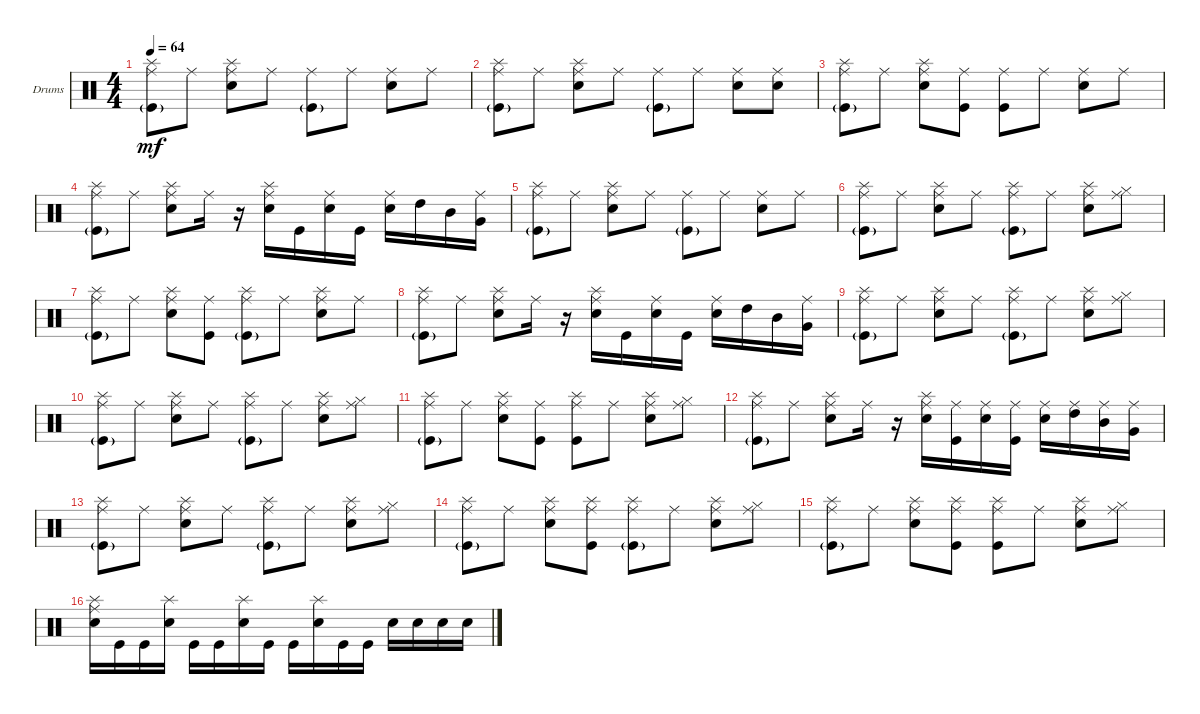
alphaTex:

\defaultSystemsLayout 4
\bracketExtendMode groupsimilarinstruments
\firstSystemTrackNameOrientation horizontal
\otherSystemsTrackNameOrientation horizontal
\track ("Drumkit" "Drums") {instrument percussion}
\staff {score}
\articulation defaults
\ts (4 4)
\tempo 64
\clef neutral
\ks c
("Ride (middle)" "Splash (hit)" "Kick (hit)"{g}).8{dy mf} "Ride (middle)".8 ("Ride (middle)" "Snare (hit) 2" "Splash (hit)").8 "Ride (middle)".8 ("Ride (middle)" "Kick (hit)"{g}).8 "Ride (middle)".8 ("Ride (middle)" "Snare (hit) 2").8 "Ride (middle)".8 |
("Ride (middle)" "Splash (hit)" "Kick (hit)"{g}).8 "Ride (middle)".8 ("Ride (middle)" "Snare (hit) 2" "Splash (hit)").8 "Ride (middle)".8 ("Ride (middle)" "Kick (hit)"{g}).8 "Ride (middle)".8 ("Ride (middle)" "Snare (hit) 2").8 ("Ride (middle)" "Snare (hit) 2").8 |
("Ride (middle)" "Splash (hit)" "Kick (hit)"{g}).8 "Ride (middle)".8 ("Ride (middle)" "Snare (hit) 2" "Splash (hit)").8 ("Ride (middle)" "Kick (hit)").8 ("Ride (middle)" "Kick (hit)").8 "Ride (middle)".8 ("Ride (middle)" "Snare (hit) 2").8 "Ride (middle)".8 |
("Ride (middle)" "Kick (hit)"{g} "Splash (hit)").8 "Ride (middle)".8 ("Ride (middle)" "Snare (hit) 2" "Splash (hit)").8 "Ride (middle)".16 r.16 ("Snare (hit) 2" "Ride (middle)" "Splash (hit)").16 "Kick (hit)".16 ("Snare (hit) 2" "Ride (middle)").16 "Kick (hit)".16 ("Ride (middle)" "Snare (hit) 2").16 "High Tom (hit)".16 "Mid Tom (hit)".16 ("Ride (middle)" "Very Low Tom (hit)").16 |
("Ride (middle)" "Splash (hit)" "Kick (hit)"{g}).8 "Ride (middle)".8 ("Ride (middle)" "Snare (hit) 2" "Splash (hit)").8 "Ride (middle)".8 ("Ride (middle)" "Kick (hit)"{g}).8 "Ride (middle)".8 ("Ride (middle)" "Snare (hit) 2").8 "Ride (middle)".8 |
("Ride (middle)" "Splash (hit)" "Kick (hit)"{g}).8 "Ride (middle)".8 ("Ride (middle)" "Snare (hit) 2" "Splash (hit)").8 "Ride (middle)".8 ("Ride (middle)" "Kick (hit)"{g} "Splash (hit)").8 "Ride (middle)".8 ("Ride (middle)" "Snare (hit) 2" "Splash (hit)").8 ("Ride (middle)" "Hi-Hat (closed)").8 |
("Ride (middle)" "Splash (hit)" "Kick (hit)"{g}).8 "Ride (middle)".8 ("Ride (middle)" "Snare (hit) 2" "Splash (hit)").8 ("Ride (middle)" "Kick (hit)").8 ("Ride (middle)" "Kick (hit)"{g} "Splash (hit)").8 "Ride (middle)".8 ("Ride (middle)" "Snare (hit) 2" "Splash (hit)").8 "Ride (middle)".8 |
("Ride (middle)" "Kick (hit)"{g} "Splash (hit)").8 "Ride (middle)".8 ("Ride (middle)" "Snare (hit) 2" "Splash (hit)").8 "Ride (middle)".16 r.16 ("Snare (hit) 2" "Ride (middle)" "Splash (hit)").16 "Kick (hit)".16 ("Snare (hit) 2" "Ride (middle)").16 "Kick (hit)".16 ("Ride (middle)" "Snare (hit) 2").16 "High Tom (hit)".16 "Mid Tom (hit)".16 ("Ride (middle)" "Very Low Tom (hit)").16 |
("Ride (middle)" "Splash (hit)" "Kick (hit)"{g}).8 "Ride (middle)".8 ("Ride (middle)" "Snare (hit) 2" "Splash (hit)").8 "Ride (middle)".8 ("Ride (middle)" "Kick (hit)"{g} "Splash (hit)").8 "Ride (middle)".8 ("Ride (middle)" "Snare (hit) 2" "Splash (hit)").8 ("Ride (middle)" "Hi-Hat (closed)").8 |
("Ride (middle)" "Splash (hit)" "Kick (hit)"{g}).8 "Ride (middle)".8 ("Ride (middle)" "Snare (hit) 2" "Splash (hit)").8 "Ride (middle)".8 ("Ride (middle)" "Kick (hit)"{g} "Splash (hit)").8 "Ride (middle)".8 ("Ride (middle)" "Snare (hit) 2" "Splash (hit)").8 ("Ride (middle)" "Hi-Hat (closed)").8 |
("Ride (middle)" "Splash (hit)" "Kick (hit)"{g}).8 "Ride (middle)".8 ("Ride (middle)" "Snare (hit) 2" "Splash (hit)").8 ("Ride (middle)" "Kick (hit)").8 ("Ride (middle)" "Kick (hit)" "Splash (hit)").8 "Ride (middle)".8 ("Ride (middle)" "Snare (hit) 2" "Splash (hit)").8 ("Ride (middle)" "Hi-Hat (closed)").8 |
("Ride (middle)" "Kick (hit)"{g} "Splash (hit)").8 "Ride (middle)".8 ("Ride (middle)" "Snare (hit) 2" "Splash (hit)").8 "Ride (middle)".16 r.16 ("Snare (hit) 2" "Ride (middle)" "Splash (hit)").16 ("Kick (hit)" "Ride (middle)").16 ("Snare (hit) 2" "Ride (middle)").16 ("Kick (hit)" "Ride (middle)").16 ("Ride (middle)" "Snare (hit) 2").16 ("High Tom (hit)" "Ride (middle)").16 ("Mid Tom (hit)" "Ride (middle)").16 ("Ride (middle)" "Very Low Tom (hit)").16 |
("Ride (middle)" "Splash (hit)" "Kick (hit)"{g}).8 "Ride (middle)".8 ("Ride (middle)" "Snare (hit) 2" "Splash (hit)").8 "Ride (middle)".8 ("Ride (middle)" "Kick (hit)"{g} "Splash (hit)").8 "Ride (middle)".8 ("Ride (middle)" "Snare (hit) 2" "Splash (hit)").8 ("Ride (middle)" "Hi-Hat (closed)").8 |
("Ride (middle)" "Splash (hit)" "Kick (hit)"{g}).8 "Ride (middle)".8 ("Ride (middle)" "Snare (hit) 2" "Splash (hit)").8 ("Ride (middle)" "Kick (hit)" "Splash (hit)").8 ("Ride (middle)" "Kick (hit)"{g} "Splash (hit)").8 "Ride (middle)".8 ("Ride (middle)" "Snare (hit) 2" "Splash (hit)").8 ("Ride (middle)" "Hi-Hat (closed)").8 |
("Ride (middle)" "Splash (hit)" "Kick (hit)"{g}).8 "Ride (middle)".8 ("Ride (middle)" "Snare (hit) 2" "Splash (hit)").8 ("Ride (middle)" "Kick (hit)" "Splash (hit)").8 ("Ride (middle)" "Kick (hit)" "Splash (hit)").8 "Ride (middle)".8 ("Ride (middle)" "Snare (hit) 2" "Splash (hit)").8 ("Ride (middle)" "Hi-Hat (closed)").8 |
("Ride (middle)" "Splash (hit)" "Snare (hit) 2").16 "Kick (hit)".16 "Kick (hit)".16 ("Snare (hit) 2" "Splash (hit)").16 "Kick (hit)".16 "Kick (hit)".16 ("Splash (hit)" "Snare (hit) 2").16 "Kick (hit)".16 "Kick (hit)".16 ("Snare (hit) 2" "Splash (hit)").16 "Kick (hit)".16 "Kick (hit)".16 "Snare (hit) 2".16 "Snare (hit) 2".16 "Snare (hit) 2".16 "Snare (hit) 2".16
